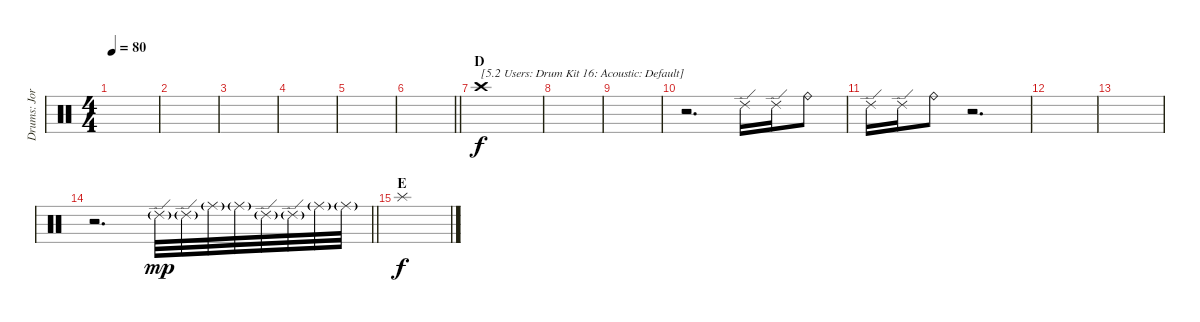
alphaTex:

\track ("Drums: Jorg" "Drums: Jor") {instrument percussion}
\staff {score}
\articulation defaults
\ts (4 4)
\tempo 80
\clef neutral
\ks c
|
|
|
|
|
\barLineRight lightlight
|
\section ("" "D")
"Crash high (hit)".1{txt "[5.2 Users: Drum Kit 16: Acoustic: Default]"} |
|
|
r.2{d} "Ride (edge) 2".16 "Ride (edge) 2".16 "Ride (bell)".8 |
"Ride (edge) 2".16 "Ride (edge) 2".16 "Ride (bell)".8 r.2{d} |
|
|
\barLineRight lightlight
r.2{d} "Ride (edge) 2"{g}.32{dy mp} "Ride (edge) 2"{g}.32 "Ride (middle)"{g}.32 "Ride (middle)"{g}.32 "Ride (edge) 2"{g}.32 "Ride (edge) 2"{g}.32 "Ride (middle)"{g}.32 "Ride (middle)"{g}.32 |
\section ("" "E")
"Splash (hit)".1{dy f}
